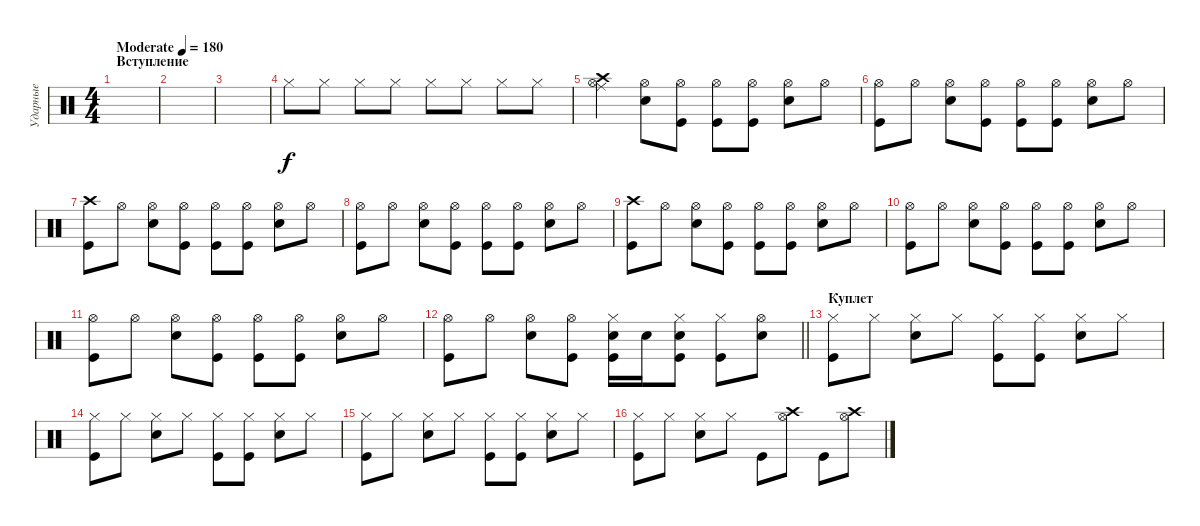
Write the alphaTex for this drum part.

\track ("Ударные" "Ударные") {instrument percussion}
\staff {score}
\articulation defaults
\ts (4 4)
\section ("" "Вступление")
\tempo (180 "Moderate")
\clef neutral
\ks c
|
|
|
"Hi-Hat (closed)".8 "Hi-Hat (closed)".8 "Hi-Hat (closed)".8 "Hi-Hat (closed)".8 "Hi-Hat (closed)".8 "Hi-Hat (closed)".8 "Hi-Hat (closed)".8 "Hi-Hat (closed)".8 |
("Hi-Hat (open)" "Ride (middle)" "Crash high (hit)").4 ("Hi-Hat (open)" "Snare (hit) 2").8 ("Hi-Hat (open)" "Kick (hit)").8 ("Hi-Hat (open)" "Kick (hit)").8 ("Hi-Hat (open)" "Kick (hit)").8 ("Hi-Hat (open)" "Snare (hit) 2").8 "Hi-Hat (open)".8 |
("Hi-Hat (open)" "Kick (hit)").8 "Hi-Hat (open)".8 ("Hi-Hat (open)" "Snare (hit) 2").8 ("Hi-Hat (open)" "Kick (hit)").8 ("Hi-Hat (open)" "Kick (hit)").8 ("Hi-Hat (open)" "Kick (hit)").8 ("Hi-Hat (open)" "Snare (hit) 2").8 "Hi-Hat (open)".8 |
("Crash high (hit)" "Kick (hit)").8 "Hi-Hat (open)".8 ("Hi-Hat (open)" "Snare (hit) 2").8 ("Hi-Hat (open)" "Kick (hit)").8 ("Hi-Hat (open)" "Kick (hit)").8 ("Hi-Hat (open)" "Kick (hit)").8 ("Hi-Hat (open)" "Snare (hit) 2").8 "Hi-Hat (open)".8 |
("Hi-Hat (open)" "Kick (hit)").8 "Hi-Hat (open)".8 ("Hi-Hat (open)" "Snare (hit) 2").8 ("Hi-Hat (open)" "Kick (hit)").8 ("Hi-Hat (open)" "Kick (hit)").8 ("Hi-Hat (open)" "Kick (hit)").8 ("Hi-Hat (open)" "Snare (hit) 2").8 "Hi-Hat (open)".8 |
("Crash high (hit)" "Kick (hit)").8 "Hi-Hat (open)".8 ("Hi-Hat (open)" "Snare (hit) 2").8 ("Hi-Hat (open)" "Kick (hit)").8 ("Hi-Hat (open)" "Kick (hit)").8 ("Hi-Hat (open)" "Kick (hit)").8 ("Hi-Hat (open)" "Snare (hit) 2").8 "Hi-Hat (open)".8 |
("Hi-Hat (open)" "Kick (hit)").8 "Hi-Hat (open)".8 ("Hi-Hat (open)" "Snare (hit) 2").8 ("Hi-Hat (open)" "Kick (hit)").8 ("Hi-Hat (open)" "Kick (hit)").8 ("Hi-Hat (open)" "Kick (hit)").8 ("Hi-Hat (open)" "Snare (hit) 2").8 "Hi-Hat (open)".8 |
("Hi-Hat (open)" "Kick (hit)").8 "Hi-Hat (open)".8 ("Hi-Hat (open)" "Snare (hit) 2").8 ("Hi-Hat (open)" "Kick (hit)").8 ("Hi-Hat (open)" "Kick (hit)").8 ("Hi-Hat (open)" "Kick (hit)").8 ("Hi-Hat (open)" "Snare (hit) 2").8 "Hi-Hat (open)".8 |
\barLineRight lightlight
("Hi-Hat (open)" "Kick (hit)").8 "Hi-Hat (open)".8 ("Hi-Hat (open)" "Snare (hit) 2").8 ("Hi-Hat (open)" "Kick (hit)").8 ("Hi-Hat (closed)" "Kick (hit)" "Snare (hit) 2").16 "Snare (hit) 2".16 ("Kick (hit)" "Snare (hit) 2" "Hi-Hat (closed)").8 ("Kick (hit)" "Hi-Hat (closed)").8 ("Snare (hit) 2" "Hi-Hat (open)").8 |
\section ("" "Куплет")
("Hi-Hat (closed)" "Kick (hit)").8 "Hi-Hat (closed)".8 ("Hi-Hat (closed)" "Snare (hit) 2").8 "Hi-Hat (closed)".8 ("Hi-Hat (closed)" "Kick (hit)").8 ("Hi-Hat (closed)" "Kick (hit)").8 ("Hi-Hat (closed)" "Snare (hit) 2").8 "Hi-Hat (closed)".8 |
("Hi-Hat (closed)" "Kick (hit)").8 "Hi-Hat (closed)".8 ("Hi-Hat (closed)" "Snare (hit) 2").8 "Hi-Hat (closed)".8 ("Hi-Hat (closed)" "Kick (hit)").8 ("Hi-Hat (closed)" "Kick (hit)").8 ("Hi-Hat (closed)" "Snare (hit) 2").8 "Hi-Hat (closed)".8 |
("Hi-Hat (closed)" "Kick (hit)").8 "Hi-Hat (closed)".8 ("Hi-Hat (closed)" "Snare (hit) 2").8 "Hi-Hat (closed)".8 ("Hi-Hat (closed)" "Kick (hit)").8 ("Hi-Hat (closed)" "Kick (hit)").8 ("Hi-Hat (closed)" "Snare (hit) 2").8 "Hi-Hat (closed)".8 |
("Hi-Hat (closed)" "Kick (hit)").8 "Hi-Hat (closed)".8 ("Hi-Hat (closed)" "Snare (hit) 2").8 "Hi-Hat (closed)".8 "Kick (hit)".8 ("Hi-Hat (open)" "Crash high (hit)").8 "Kick (hit)".8 ("Hi-Hat (open)" "Crash high (hit)").8
